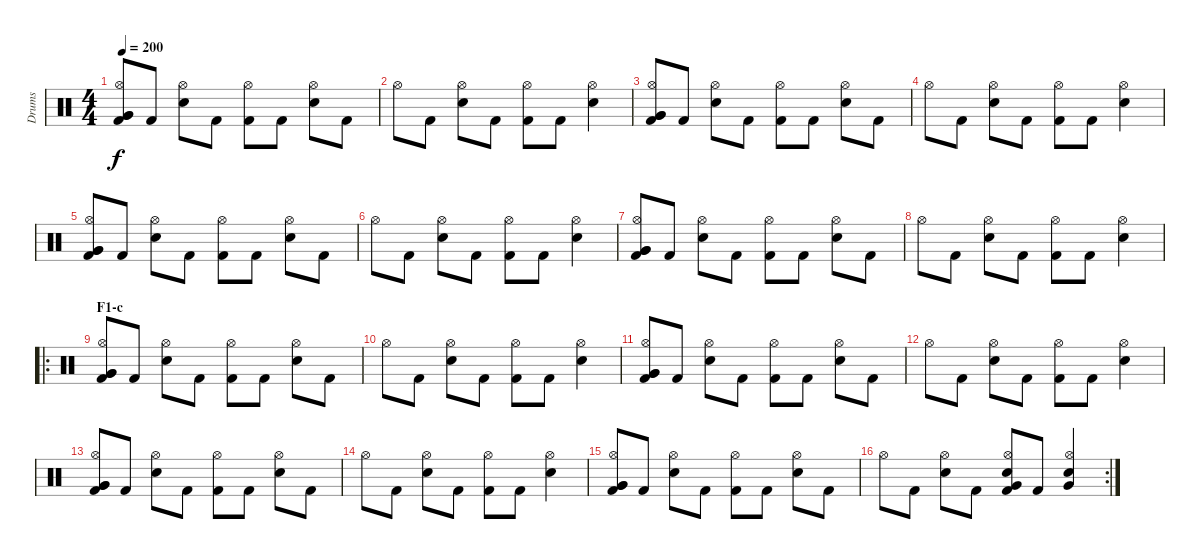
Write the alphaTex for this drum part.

\track ("Drums" "Drums") {instrument percussion}
\staff {score}
\articulation defaults
\ts (4 4)
\tempo 200
\clef neutral
\ks c
("Very Low Tom (hit)" "Very Low Tom (hit)" "Hi-Hat (open)" "Kick (hit) 2").8{dy f} "Kick (hit) 2".8 ("Electric Snare (hit)" "Hi-Hat (open)").8 "Kick (hit) 2".8 ("Hi-Hat (open)" "Kick (hit) 2").8 "Kick (hit) 2".8 ("Electric Snare (hit)" "Hi-Hat (open)").8 "Kick (hit) 2".8 |
"Hi-Hat (open)".8 "Kick (hit) 2".8 ("Electric Snare (hit)" "Hi-Hat (open)").8 "Kick (hit) 2".8 ("Hi-Hat (open)" "Kick (hit) 2").8 "Kick (hit) 2".8 ("Electric Snare (hit)" "Hi-Hat (open)").4 |
("Very Low Tom (hit)" "Very Low Tom (hit)" "Hi-Hat (open)" "Kick (hit) 2").8 "Kick (hit) 2".8 ("Electric Snare (hit)" "Hi-Hat (open)").8 "Kick (hit) 2".8 ("Hi-Hat (open)" "Kick (hit) 2").8 "Kick (hit) 2".8 ("Electric Snare (hit)" "Hi-Hat (open)").8 "Kick (hit) 2".8 |
"Hi-Hat (open)".8 "Kick (hit) 2".8 ("Electric Snare (hit)" "Hi-Hat (open)").8 "Kick (hit) 2".8 ("Hi-Hat (open)" "Kick (hit) 2").8 "Kick (hit) 2".8 ("Electric Snare (hit)" "Hi-Hat (open)").4 |
("Very Low Tom (hit)" "Very Low Tom (hit)" "Hi-Hat (open)" "Kick (hit) 2").8 "Kick (hit) 2".8 ("Electric Snare (hit)" "Hi-Hat (open)").8 "Kick (hit) 2".8 ("Hi-Hat (open)" "Kick (hit) 2").8 "Kick (hit) 2".8 ("Electric Snare (hit)" "Hi-Hat (open)").8 "Kick (hit) 2".8 |
"Hi-Hat (open)".8 "Kick (hit) 2".8 ("Electric Snare (hit)" "Hi-Hat (open)").8 "Kick (hit) 2".8 ("Hi-Hat (open)" "Kick (hit) 2").8 "Kick (hit) 2".8 ("Electric Snare (hit)" "Hi-Hat (open)").4 |
("Very Low Tom (hit)" "Very Low Tom (hit)" "Hi-Hat (open)" "Kick (hit) 2").8 "Kick (hit) 2".8 ("Electric Snare (hit)" "Hi-Hat (open)").8 "Kick (hit) 2".8 ("Hi-Hat (open)" "Kick (hit) 2").8 "Kick (hit) 2".8 ("Electric Snare (hit)" "Hi-Hat (open)").8 "Kick (hit) 2".8 |
"Hi-Hat (open)".8 "Kick (hit) 2".8 ("Electric Snare (hit)" "Hi-Hat (open)").8 "Kick (hit) 2".8 ("Hi-Hat (open)" "Kick (hit) 2").8 "Kick (hit) 2".8 ("Electric Snare (hit)" "Hi-Hat (open)").4 |
\ro
\section ("" "F1-c")
("Very Low Tom (hit)" "Very Low Tom (hit)" "Hi-Hat (open)" "Kick (hit) 2").8 "Kick (hit) 2".8 ("Electric Snare (hit)" "Hi-Hat (open)").8 "Kick (hit) 2".8 ("Hi-Hat (open)" "Kick (hit) 2").8 "Kick (hit) 2".8 ("Electric Snare (hit)" "Hi-Hat (open)").8 "Kick (hit) 2".8 |
"Hi-Hat (open)".8 "Kick (hit) 2".8 ("Electric Snare (hit)" "Hi-Hat (open)").8 "Kick (hit) 2".8 ("Hi-Hat (open)" "Kick (hit) 2").8 "Kick (hit) 2".8 ("Electric Snare (hit)" "Hi-Hat (open)").4 |
("Very Low Tom (hit)" "Very Low Tom (hit)" "Hi-Hat (open)" "Kick (hit) 2").8 "Kick (hit) 2".8 ("Electric Snare (hit)" "Hi-Hat (open)").8 "Kick (hit) 2".8 ("Hi-Hat (open)" "Kick (hit) 2").8 "Kick (hit) 2".8 ("Electric Snare (hit)" "Hi-Hat (open)").8 "Kick (hit) 2".8 |
"Hi-Hat (open)".8 "Kick (hit) 2".8 ("Electric Snare (hit)" "Hi-Hat (open)").8 "Kick (hit) 2".8 ("Hi-Hat (open)" "Kick (hit) 2").8 "Kick (hit) 2".8 ("Electric Snare (hit)" "Hi-Hat (open)").4 |
("Very Low Tom (hit)" "Very Low Tom (hit)" "Hi-Hat (open)" "Kick (hit) 2").8 "Kick (hit) 2".8 ("Electric Snare (hit)" "Hi-Hat (open)").8 "Kick (hit) 2".8 ("Hi-Hat (open)" "Kick (hit) 2").8 "Kick (hit) 2".8 ("Electric Snare (hit)" "Hi-Hat (open)").8 "Kick (hit) 2".8 |
"Hi-Hat (open)".8 "Kick (hit) 2".8 ("Electric Snare (hit)" "Hi-Hat (open)").8 "Kick (hit) 2".8 ("Hi-Hat (open)" "Kick (hit) 2").8 "Kick (hit) 2".8 ("Electric Snare (hit)" "Hi-Hat (open)").4 |
("Very Low Tom (hit)" "Very Low Tom (hit)" "Hi-Hat (open)" "Kick (hit) 2").8 "Kick (hit) 2".8 ("Electric Snare (hit)" "Hi-Hat (open)").8 "Kick (hit) 2".8 ("Hi-Hat (open)" "Kick (hit) 2").8 "Kick (hit) 2".8 ("Electric Snare (hit)" "Hi-Hat (open)").8 "Kick (hit) 2".8 |
\rc 2 "Hi-Hat (open)".8 "Kick (hit) 2".8
("Electric Snare (hit)" "Hi-Hat (open)").8 "Kick (hit) 2".8 ("Very Low Tom (hit)" "Electric Snare (hit)" "Hi-Hat (open)" "Kick (hit) 2").8 "Kick (hit) 2".8 ("Very Low Tom (hit)" "Electric Snare (hit)" "Hi-Hat (open)").4
